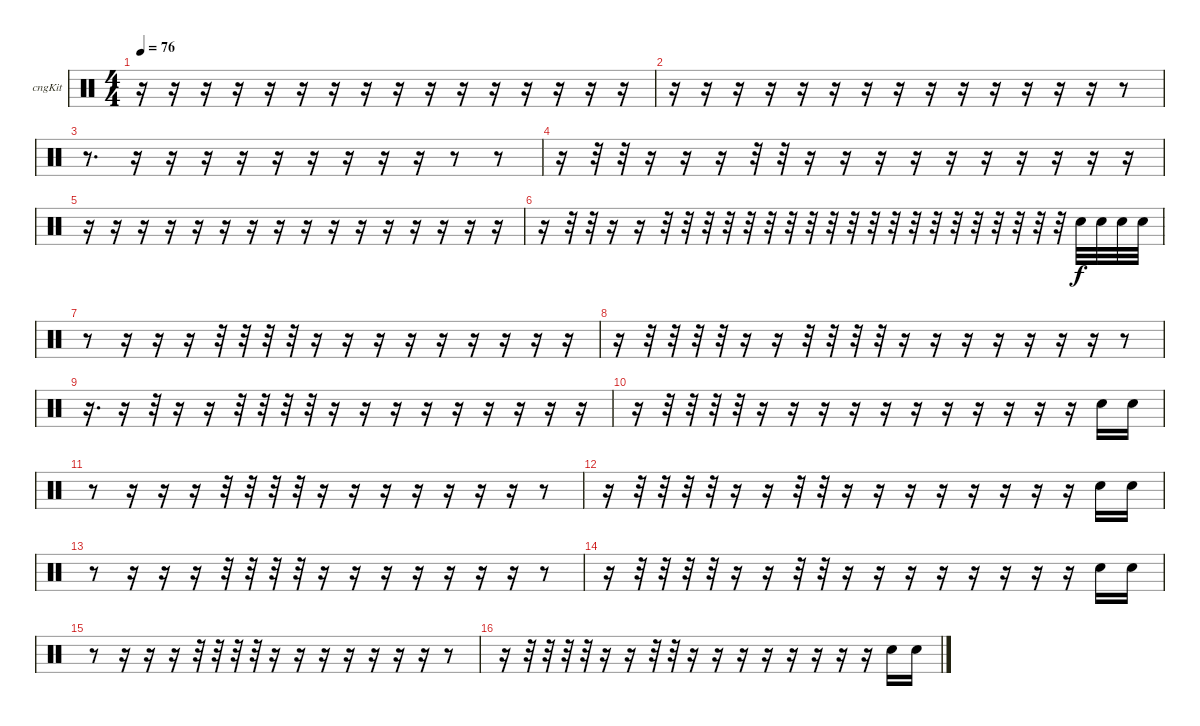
\bracketExtendMode groupsimilarinstruments
\firstSystemTrackNameOrientation horizontal
\otherSystemsTrackNameOrientation horizontal
\track ("Congas" "cngKit") {instrument percussion}
\staff {score}
\articulation defaults
\ts (4 4)
\tempo 76
\clef neutral
\ks c
r.16{dy f} r.16 r.16 r.16 r.16 r.16 r.16 r.16 r.16 r.16 r.16 r.16 r.16 r.16 r.16 r.16 |
r.16 r.16 r.16 r.16 r.16 r.16 r.16 r.16 r.16 r.16 r.16 r.16 r.16 r.16 r.8 |
r.8{d} r.16 r.16 r.16 r.16 r.16 r.16 r.16 r.16 r.16 r.8 r.8 |
r.16 r.32 r.32 r.16 r.16 r.16 r.32 r.32 r.16 r.16 r.16 r.16 r.16 r.16 r.16 r.16 r.16 r.16 |
r.16 r.16 r.16 r.16 r.16 r.16 r.16 r.16 r.16 r.16 r.16 r.16 r.16 r.16 r.16 r.16 |
r.16 r.32 r.32 r.16 r.16 r.32 r.32 r.32 r.32 r.32 r.32 r.32 r.32 r.32 r.32 r.32 r.32 r.32 r.32 r.32 r.32 r.32 r.32 r.32 r.32 "Snare (hit) 2".32 "Snare (hit) 2".32 "Snare (hit) 2".32 "Snare (hit) 2".32 |
r.8 r.16 r.16 r.16 r.32 r.32 r.32 r.32 r.16 r.16 r.16 r.16 r.16 r.16 r.16 r.16 r.16 |
r.16 r.32 r.32 r.32 r.32 r.16 r.16 r.32 r.32 r.32 r.32 r.16 r.16 r.16 r.16 r.16 r.16 r.16 r.8 |
r.16{d} r.16 r.32 r.16 r.16 r.32 r.32 r.32 r.32 r.16 r.16 r.16 r.16 r.16 r.16 r.16 r.16 r.16 |
r.16 r.32 r.32 r.32 r.32 r.16 r.16 r.16 r.16 r.16 r.16 r.16 r.16 r.16 r.16 r.16 "Snare (hit) 2".16 "Snare (hit) 2".16 |
r.8 r.16 r.16 r.16 r.32 r.32 r.32 r.32 r.16 r.16 r.16 r.16 r.16 r.16 r.16 r.8 |
r.16 r.32 r.32 r.32 r.32 r.16 r.16 r.32 r.32 r.16 r.16 r.16 r.16 r.16 r.16 r.16 r.16 "Snare (hit) 2".16 "Snare (hit) 2".16 |
r.8 r.16 r.16 r.16 r.32 r.32 r.32 r.32 r.16 r.16 r.16 r.16 r.16 r.16 r.16 r.8 |
r.16 r.32 r.32 r.32 r.32 r.16 r.16 r.32 r.32 r.16 r.16 r.16 r.16 r.16 r.16 r.16 r.16 "Snare (hit) 2".16 "Snare (hit) 2".16 |
r.8 r.16 r.16 r.16 r.32 r.32 r.32 r.32 r.16 r.16 r.16 r.16 r.16 r.16 r.16 r.8 |
r.16 r.32 r.32 r.32 r.32 r.16 r.16 r.32 r.32 r.16 r.16 r.16 r.16 r.16 r.16 r.16 r.16 "Snare (hit) 2".16 "Snare (hit) 2".16
